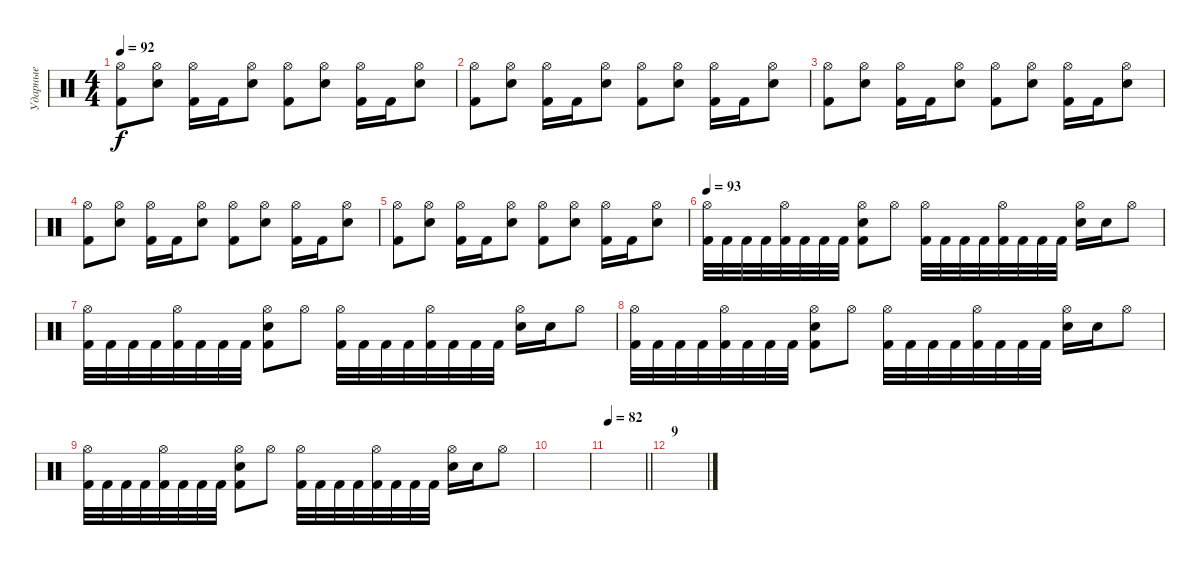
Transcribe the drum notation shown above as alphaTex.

\track ("Ударные" "Ударные") {mute instrument percussion}
\staff {score}
\articulation defaults
\ts (4 4)
\tempo 92
\clef neutral
\ks c
("Hi-Hat (open)" "Kick (hit) 2").8{dy f} ("Hi-Hat (open)" "Electric Snare (hit)").8 ("Hi-Hat (open)" "Kick (hit) 2").16 "Kick (hit) 2".16 ("Hi-Hat (open)" "Electric Snare (hit)").8 ("Hi-Hat (open)" "Kick (hit) 2").8 ("Hi-Hat (open)" "Electric Snare (hit)").8 ("Hi-Hat (open)" "Kick (hit) 2").16 "Kick (hit) 2".16 ("Hi-Hat (open)" "Electric Snare (hit)").8 |
("Hi-Hat (open)" "Kick (hit) 2").8 ("Hi-Hat (open)" "Electric Snare (hit)").8 ("Hi-Hat (open)" "Kick (hit) 2").16 "Kick (hit) 2".16 ("Hi-Hat (open)" "Electric Snare (hit)").8 ("Hi-Hat (open)" "Kick (hit) 2").8 ("Hi-Hat (open)" "Electric Snare (hit)").8 ("Hi-Hat (open)" "Kick (hit) 2").16 "Kick (hit) 2".16 ("Hi-Hat (open)" "Electric Snare (hit)").8 |
("Hi-Hat (open)" "Kick (hit) 2").8 ("Hi-Hat (open)" "Electric Snare (hit)").8 ("Hi-Hat (open)" "Kick (hit) 2").16 "Kick (hit) 2".16 ("Hi-Hat (open)" "Electric Snare (hit)").8 ("Hi-Hat (open)" "Kick (hit) 2").8 ("Hi-Hat (open)" "Electric Snare (hit)").8 ("Hi-Hat (open)" "Kick (hit) 2").16 "Kick (hit) 2".16 ("Hi-Hat (open)" "Electric Snare (hit)").8 |
("Hi-Hat (open)" "Kick (hit) 2").8 ("Hi-Hat (open)" "Electric Snare (hit)").8 ("Hi-Hat (open)" "Kick (hit) 2").16 "Kick (hit) 2".16 ("Hi-Hat (open)" "Electric Snare (hit)").8 ("Hi-Hat (open)" "Kick (hit) 2").8 ("Hi-Hat (open)" "Electric Snare (hit)").8 ("Hi-Hat (open)" "Kick (hit) 2").16 "Kick (hit) 2".16 ("Hi-Hat (open)" "Electric Snare (hit)").8 |
("Hi-Hat (open)" "Kick (hit) 2").8 ("Hi-Hat (open)" "Electric Snare (hit)").8 ("Hi-Hat (open)" "Kick (hit) 2").16 "Kick (hit) 2".16 ("Hi-Hat (open)" "Electric Snare (hit)").8 ("Hi-Hat (open)" "Kick (hit) 2").8 ("Hi-Hat (open)" "Electric Snare (hit)").8 ("Hi-Hat (open)" "Kick (hit) 2").16 "Kick (hit) 2".16 ("Hi-Hat (open)" "Electric Snare (hit)").8 |
\tempo 93
("Hi-Hat (open)" "Kick (hit) 2").32 "Kick (hit) 2".32 "Kick (hit) 2".32 "Kick (hit) 2".32 ("Hi-Hat (open)" "Kick (hit) 2").32 "Kick (hit) 2".32 "Kick (hit) 2".32 "Kick (hit) 2".32 ("Hi-Hat (open)" "Electric Snare (hit)" "Kick (hit) 2").8 "Hi-Hat (open)".8 ("Hi-Hat (open)" "Kick (hit) 2").32 "Kick (hit) 2".32 "Kick (hit) 2".32 "Kick (hit) 2".32 ("Hi-Hat (open)" "Kick (hit) 2").32 "Kick (hit) 2".32 "Kick (hit) 2".32 "Kick (hit) 2".32 ("Hi-Hat (open)" "Electric Snare (hit)").16 "Electric Snare (hit)".16 "Hi-Hat (open)".8 |
("Hi-Hat (open)" "Kick (hit) 2").32 "Kick (hit) 2".32 "Kick (hit) 2".32 "Kick (hit) 2".32 ("Hi-Hat (open)" "Kick (hit) 2").32 "Kick (hit) 2".32 "Kick (hit) 2".32 "Kick (hit) 2".32 ("Hi-Hat (open)" "Electric Snare (hit)" "Kick (hit) 2").8 "Hi-Hat (open)".8 ("Hi-Hat (open)" "Kick (hit) 2").32 "Kick (hit) 2".32 "Kick (hit) 2".32 "Kick (hit) 2".32 ("Hi-Hat (open)" "Kick (hit) 2").32 "Kick (hit) 2".32 "Kick (hit) 2".32 "Kick (hit) 2".32 ("Hi-Hat (open)" "Electric Snare (hit)").16 "Electric Snare (hit)".16 "Hi-Hat (open)".8 |
("Hi-Hat (open)" "Kick (hit) 2").32 "Kick (hit) 2".32 "Kick (hit) 2".32 "Kick (hit) 2".32 ("Hi-Hat (open)" "Kick (hit) 2").32 "Kick (hit) 2".32 "Kick (hit) 2".32 "Kick (hit) 2".32 ("Hi-Hat (open)" "Electric Snare (hit)" "Kick (hit) 2").8 "Hi-Hat (open)".8 ("Hi-Hat (open)" "Kick (hit) 2").32 "Kick (hit) 2".32 "Kick (hit) 2".32 "Kick (hit) 2".32 ("Hi-Hat (open)" "Kick (hit) 2").32 "Kick (hit) 2".32 "Kick (hit) 2".32 "Kick (hit) 2".32 ("Hi-Hat (open)" "Electric Snare (hit)").16 "Electric Snare (hit)".16 "Hi-Hat (open)".8 |
("Hi-Hat (open)" "Kick (hit) 2").32 "Kick (hit) 2".32 "Kick (hit) 2".32 "Kick (hit) 2".32 ("Hi-Hat (open)" "Kick (hit) 2").32 "Kick (hit) 2".32 "Kick (hit) 2".32 "Kick (hit) 2".32 ("Hi-Hat (open)" "Electric Snare (hit)" "Kick (hit) 2").8 "Hi-Hat (open)".8 ("Hi-Hat (open)" "Kick (hit) 2").32 "Kick (hit) 2".32 "Kick (hit) 2".32 "Kick (hit) 2".32 ("Hi-Hat (open)" "Kick (hit) 2").32 "Kick (hit) 2".32 "Kick (hit) 2".32 "Kick (hit) 2".32 ("Hi-Hat (open)" "Electric Snare (hit)").16 "Electric Snare (hit)".16 "Hi-Hat (open)".8 |
|
\tempo 82
\barLineRight lightlight
|
\section ("" "9")
